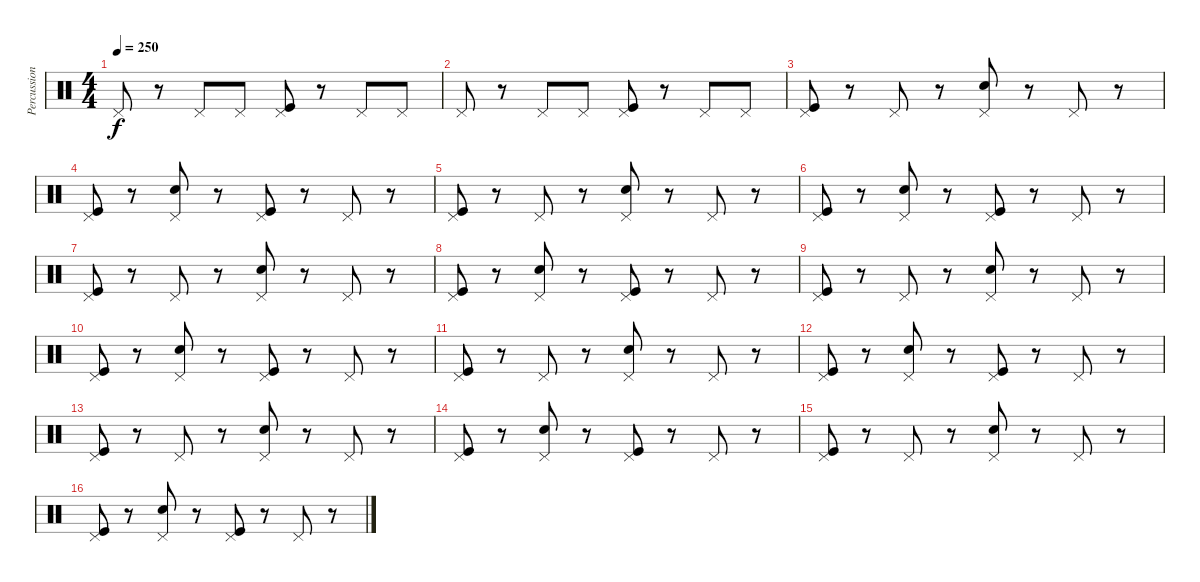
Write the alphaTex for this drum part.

\track ("Percussions" "Percussion") {instrument percussion}
\staff {score}
\articulation defaults
\ts (4 4)
\tempo 250
\clef neutral
\ks c "Pedal Hi-Hat (hit)".8{dy f}
r.8 "Pedal Hi-Hat (hit)".8 "Pedal Hi-Hat (hit)".8 ("Pedal Hi-Hat (hit)" "Kick (hit)").8 r.8 "Pedal Hi-Hat (hit)".8 "Pedal Hi-Hat (hit)".8 |
"Pedal Hi-Hat (hit)".8 r.8 "Pedal Hi-Hat (hit)".8 "Pedal Hi-Hat (hit)".8 ("Pedal Hi-Hat (hit)" "Kick (hit)").8 r.8 "Pedal Hi-Hat (hit)".8 "Pedal Hi-Hat (hit)".8 |
("Pedal Hi-Hat (hit)" "Kick (hit)").8 r.8 "Pedal Hi-Hat (hit)".8 r.8 ("Pedal Hi-Hat (hit)" "Snare (hit) 2").8 r.8 "Pedal Hi-Hat (hit)".8 r.8 |
("Pedal Hi-Hat (hit)" "Kick (hit)").8 r.8 ("Pedal Hi-Hat (hit)" "Snare (hit) 2").8 r.8 ("Pedal Hi-Hat (hit)" "Kick (hit)").8 r.8 "Pedal Hi-Hat (hit)".8 r.8 |
("Pedal Hi-Hat (hit)" "Kick (hit)").8 r.8 "Pedal Hi-Hat (hit)".8 r.8 ("Pedal Hi-Hat (hit)" "Snare (hit) 2").8 r.8 "Pedal Hi-Hat (hit)".8 r.8 |
("Pedal Hi-Hat (hit)" "Kick (hit)").8 r.8 ("Pedal Hi-Hat (hit)" "Snare (hit) 2").8 r.8 ("Pedal Hi-Hat (hit)" "Kick (hit)").8 r.8 "Pedal Hi-Hat (hit)".8 r.8 |
("Pedal Hi-Hat (hit)" "Kick (hit)").8 r.8 "Pedal Hi-Hat (hit)".8 r.8 ("Pedal Hi-Hat (hit)" "Snare (hit) 2").8 r.8 "Pedal Hi-Hat (hit)".8 r.8 |
("Pedal Hi-Hat (hit)" "Kick (hit)").8 r.8 ("Pedal Hi-Hat (hit)" "Snare (hit) 2").8 r.8 ("Pedal Hi-Hat (hit)" "Kick (hit)").8 r.8 "Pedal Hi-Hat (hit)".8 r.8 |
("Pedal Hi-Hat (hit)" "Kick (hit)").8 r.8 "Pedal Hi-Hat (hit)".8 r.8 ("Pedal Hi-Hat (hit)" "Snare (hit) 2").8 r.8 "Pedal Hi-Hat (hit)".8 r.8 |
("Pedal Hi-Hat (hit)" "Kick (hit)").8 r.8 ("Pedal Hi-Hat (hit)" "Snare (hit) 2").8 r.8 ("Pedal Hi-Hat (hit)" "Kick (hit)").8 r.8 "Pedal Hi-Hat (hit)".8 r.8 |
("Pedal Hi-Hat (hit)" "Kick (hit)").8 r.8 "Pedal Hi-Hat (hit)".8 r.8 ("Pedal Hi-Hat (hit)" "Snare (hit) 2").8 r.8 "Pedal Hi-Hat (hit)".8 r.8 |
("Pedal Hi-Hat (hit)" "Kick (hit)").8 r.8 ("Pedal Hi-Hat (hit)" "Snare (hit) 2").8 r.8 ("Pedal Hi-Hat (hit)" "Kick (hit)").8 r.8 "Pedal Hi-Hat (hit)".8 r.8 |
("Pedal Hi-Hat (hit)" "Kick (hit)").8 r.8 "Pedal Hi-Hat (hit)".8 r.8 ("Pedal Hi-Hat (hit)" "Snare (hit) 2").8 r.8 "Pedal Hi-Hat (hit)".8 r.8 |
("Pedal Hi-Hat (hit)" "Kick (hit)").8 r.8 ("Pedal Hi-Hat (hit)" "Snare (hit) 2").8 r.8 ("Pedal Hi-Hat (hit)" "Kick (hit)").8 r.8 "Pedal Hi-Hat (hit)".8 r.8 |
("Pedal Hi-Hat (hit)" "Kick (hit)").8 r.8 "Pedal Hi-Hat (hit)".8 r.8 ("Pedal Hi-Hat (hit)" "Snare (hit) 2").8 r.8 "Pedal Hi-Hat (hit)".8 r.8 |
("Pedal Hi-Hat (hit)" "Kick (hit)").8 r.8 ("Pedal Hi-Hat (hit)" "Snare (hit) 2").8 r.8 ("Pedal Hi-Hat (hit)" "Kick (hit)").8 r.8 "Pedal Hi-Hat (hit)".8 r.8
